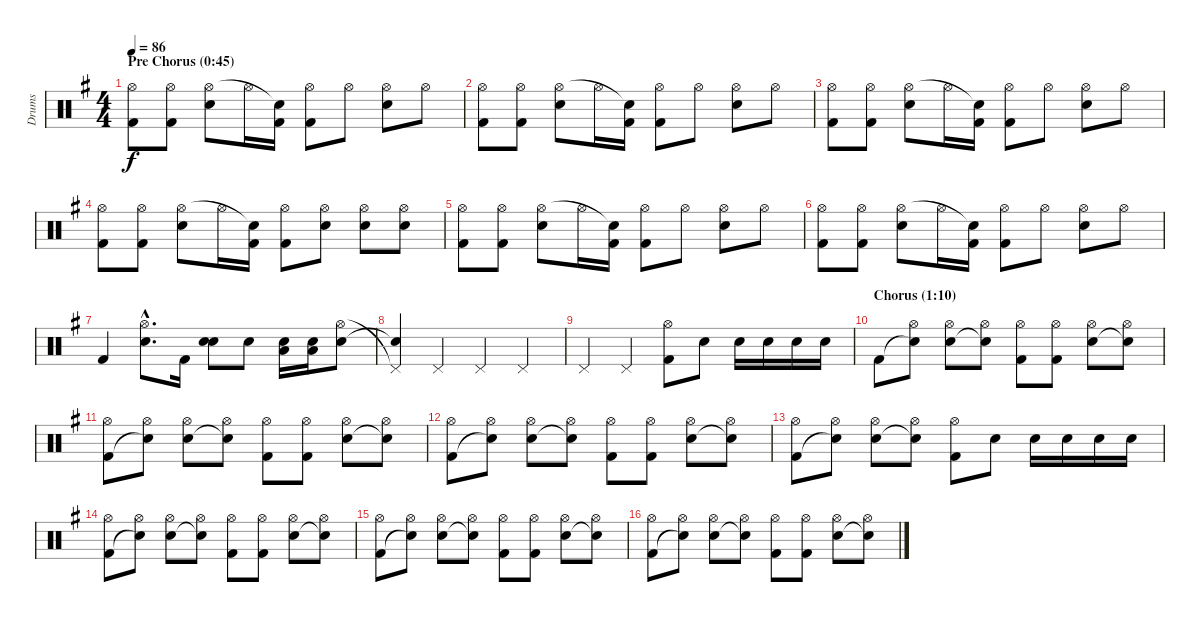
\track ("Drums" "Drums") {instrument percussion}
\staff {score}
\articulation defaults
\ts (4 4)
\section ("" "Pre Chorus (0:45)")
\tempo 86
\clef neutral
\ks eminor
("Kick (hit) 2" "Hi-Hat (open)").8{dy f} ("Kick (hit) 2" "Hi-Hat (open)").8 ("Electric Snare (hit)" "Hi-Hat (open)").8 "Hi-Hat (open)".16 ("Kick (hit) 2" "Snare (hit)"{t}).16 ("Kick (hit) 2" "Hi-Hat (open)").8 "Hi-Hat (open)".8 ("Electric Snare (hit)" "Hi-Hat (open)").8 "Hi-Hat (open)".8 |
("Kick (hit) 2" "Hi-Hat (open)").8 ("Kick (hit) 2" "Hi-Hat (open)").8 ("Electric Snare (hit)" "Hi-Hat (open)").8 "Hi-Hat (open)".16 ("Kick (hit) 2" "Snare (hit)"{t}).16 ("Kick (hit) 2" "Hi-Hat (open)").8 "Hi-Hat (open)".8 ("Electric Snare (hit)" "Hi-Hat (open)").8 "Hi-Hat (open)".8 |
("Kick (hit) 2" "Hi-Hat (open)").8 ("Kick (hit) 2" "Hi-Hat (open)").8 ("Electric Snare (hit)" "Hi-Hat (open)").8 "Hi-Hat (open)".16 ("Kick (hit) 2" "Snare (hit)"{t}).16 ("Kick (hit) 2" "Hi-Hat (open)").8 "Hi-Hat (open)".8 ("Electric Snare (hit)" "Hi-Hat (open)").8 "Hi-Hat (open)".8 |
("Kick (hit) 2" "Hi-Hat (open)").8 ("Kick (hit) 2" "Hi-Hat (open)").8 ("Electric Snare (hit)" "Hi-Hat (open)").8 "Hi-Hat (open)".16 ("Kick (hit) 2" "Snare (hit)"{t}).16 ("Kick (hit) 2" "Hi-Hat (open)").8 ("Hi-Hat (open)" "Electric Snare (hit)").8 ("Hi-Hat (open)" "Electric Snare (hit)").8 ("Hi-Hat (open)" "Electric Snare (hit)").8 |
("Kick (hit) 2" "Hi-Hat (open)").8 ("Kick (hit) 2" "Hi-Hat (open)").8 ("Electric Snare (hit)" "Hi-Hat (open)").8 "Hi-Hat (open)".16 ("Kick (hit) 2" "Snare (hit)"{t}).16 ("Kick (hit) 2" "Hi-Hat (open)").8 "Hi-Hat (open)".8 ("Electric Snare (hit)" "Hi-Hat (open)").8 "Hi-Hat (open)".8 |
("Kick (hit) 2" "Hi-Hat (open)").8 ("Kick (hit) 2" "Hi-Hat (open)").8 ("Electric Snare (hit)" "Hi-Hat (open)").8 "Hi-Hat (open)".16 ("Kick (hit) 2" "Snare (hit)"{t}).16 ("Kick (hit) 2" "Hi-Hat (open)").8 "Hi-Hat (open)".8 ("Electric Snare (hit)" "Hi-Hat (open)").8 "Hi-Hat (open)".8 |
"Kick (hit) 2".4 ("Electric Snare (hit)"{hac} "Hi-Hat (open)"{hac}).8{d} "Kick (hit) 2".16 ("Electric Snare (hit)" "Electric Snare (hit)").8 "Electric Snare (hit)".8 ("Electric Snare (hit)" "Low Tom (hit)").16 ("Electric Snare (hit)" "Low Tom (hit)").16 ("Electric Snare (hit)" "Hi-Hat (open)").8 |
("Snare (hit)"{t} "Pedal Hi-Hat (hit)"{t}).4 "Pedal Hi-Hat (hit)".4 "Pedal Hi-Hat (hit)".4 "Pedal Hi-Hat (hit)".4 |
"Pedal Hi-Hat (hit)".4 "Pedal Hi-Hat (hit)".4 ("Kick (hit) 2" "Hi-Hat (open)").8 "Electric Snare (hit)".8 "Electric Snare (hit)".16 "Electric Snare (hit)".16 "Electric Snare (hit)".16 "Electric Snare (hit)".16 |
\section ("" "Chorus (1:10)")
"Kick (hit) 2".8 ("Snare (hit)"{t} "Hi-Hat (open)").8 ("Electric Snare (hit)" "Hi-Hat (open)").8 ("Snare (hit)"{t} "Hi-Hat (open)").8 ("Kick (hit) 2" "Hi-Hat (open)").8 ("Kick (hit) 2" "Hi-Hat (open)").8 ("Electric Snare (hit)" "Hi-Hat (open)").8 ("Snare (hit)"{t} "Hi-Hat (open)").8 |
("Kick (hit) 2" "Hi-Hat (open)").8 ("Snare (hit)"{t} "Hi-Hat (open)").8 ("Electric Snare (hit)" "Hi-Hat (open)").8 ("Snare (hit)"{t} "Hi-Hat (open)").8 ("Kick (hit) 2" "Hi-Hat (open)").8 ("Kick (hit) 2" "Hi-Hat (open)").8 ("Electric Snare (hit)" "Hi-Hat (open)").8 ("Snare (hit)"{t} "Hi-Hat (open)").8 |
("Kick (hit) 2" "Hi-Hat (open)").8 ("Snare (hit)"{t} "Hi-Hat (open)").8 ("Electric Snare (hit)" "Hi-Hat (open)").8 ("Snare (hit)"{t} "Hi-Hat (open)").8 ("Kick (hit) 2" "Hi-Hat (open)").8 ("Kick (hit) 2" "Hi-Hat (open)").8 ("Electric Snare (hit)" "Hi-Hat (open)").8 ("Snare (hit)"{t} "Hi-Hat (open)").8 |
("Kick (hit) 2" "Hi-Hat (open)").8 ("Snare (hit)"{t} "Hi-Hat (open)").8 ("Electric Snare (hit)" "Hi-Hat (open)").8 ("Snare (hit)"{t} "Hi-Hat (open)").8 ("Kick (hit) 2" "Hi-Hat (open)").8 "Electric Snare (hit)".8 "Electric Snare (hit)".16 "Electric Snare (hit)".16 "Electric Snare (hit)".16 "Electric Snare (hit)".16 |
("Kick (hit) 2" "Hi-Hat (open)").8 ("Snare (hit)"{t} "Hi-Hat (open)").8 ("Electric Snare (hit)" "Hi-Hat (open)").8 ("Snare (hit)"{t} "Hi-Hat (open)").8 ("Kick (hit) 2" "Hi-Hat (open)").8 ("Kick (hit) 2" "Hi-Hat (open)").8 ("Electric Snare (hit)" "Hi-Hat (open)").8 ("Snare (hit)"{t} "Hi-Hat (open)").8 |
("Kick (hit) 2" "Hi-Hat (open)").8 ("Snare (hit)"{t} "Hi-Hat (open)").8 ("Electric Snare (hit)" "Hi-Hat (open)").8 ("Snare (hit)"{t} "Hi-Hat (open)").8 ("Kick (hit) 2" "Hi-Hat (open)").8 ("Kick (hit) 2" "Hi-Hat (open)").8 ("Electric Snare (hit)" "Hi-Hat (open)").8 ("Snare (hit)"{t} "Hi-Hat (open)").8 |
("Kick (hit) 2" "Hi-Hat (open)").8 ("Snare (hit)"{t} "Hi-Hat (open)").8 ("Electric Snare (hit)" "Hi-Hat (open)").8 ("Snare (hit)"{t} "Hi-Hat (open)").8 ("Kick (hit) 2" "Hi-Hat (open)").8 ("Kick (hit) 2" "Hi-Hat (open)").8 ("Electric Snare (hit)" "Hi-Hat (open)").8 ("Snare (hit)"{t} "Hi-Hat (open)").8
